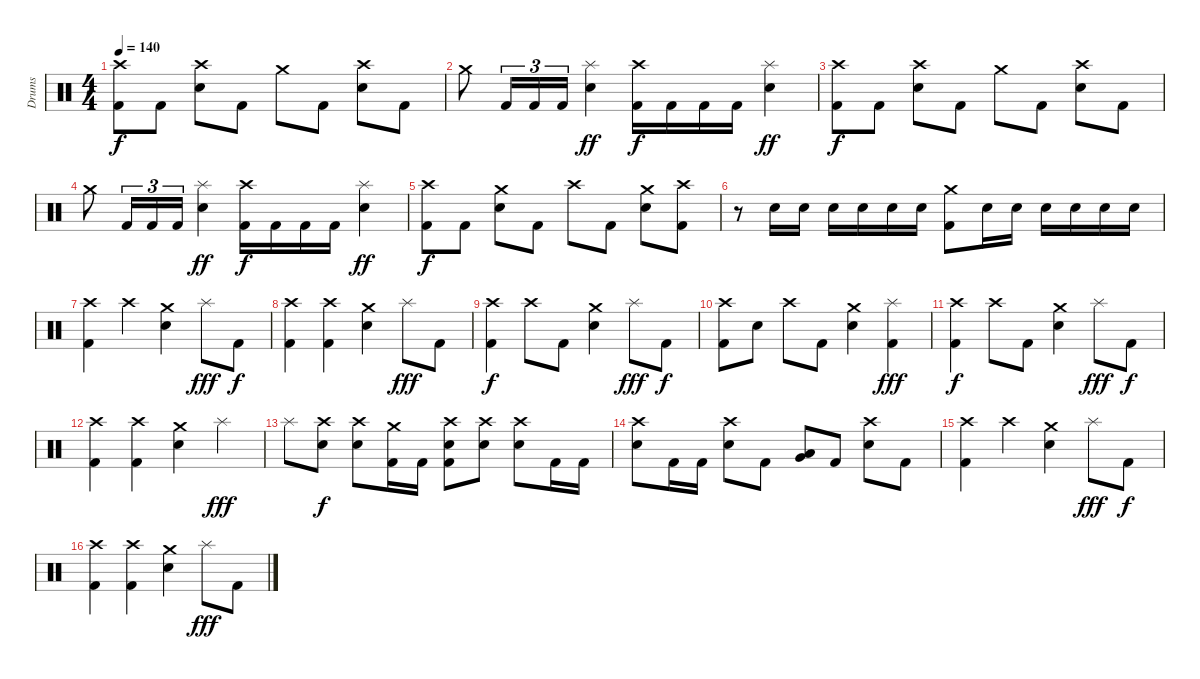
\track ("Drums" "Drums") {instrument percussion}
\staff {score}
\articulation defaults
\ts (4 4)
\tempo 140
\clef neutral
\ks c
("Crash high (hit)" "Kick (hit) 2").8{dy f} "Kick (hit) 2".8 ("Crash high (hit)" "Electric Snare (hit)").8 "Kick (hit) 2".8 "Crash medium (hit)".8 "Kick (hit) 2".8 ("Crash high (hit)" "Electric Snare (hit)").8 "Kick (hit) 2".8 |
"Crash medium (hit)".8 "Kick (hit) 2".16{tu (3 2)} "Kick (hit) 2".16{tu (3 2)} "Kick (hit) 2".16{tu (3 2)} ("Splash (hit)" "Electric Snare (hit)").4{dy ff} ("Crash high (hit)" "Kick (hit) 2").16{dy f} "Kick (hit) 2".16 "Kick (hit) 2".16 "Kick (hit) 2".16 ("Splash (hit)" "Electric Snare (hit)").4{dy ff} |
("Crash high (hit)" "Kick (hit) 2").8{dy f} "Kick (hit) 2".8 ("Crash high (hit)" "Electric Snare (hit)").8 "Kick (hit) 2".8 "Crash medium (hit)".8 "Kick (hit) 2".8 ("Crash high (hit)" "Electric Snare (hit)").8 "Kick (hit) 2".8 |
"Crash medium (hit)".8 "Kick (hit) 2".16{tu (3 2)} "Kick (hit) 2".16{tu (3 2)} "Kick (hit) 2".16{tu (3 2)} ("Splash (hit)" "Electric Snare (hit)").4{dy ff} ("Crash high (hit)" "Kick (hit) 2").16{dy f} "Kick (hit) 2".16 "Kick (hit) 2".16 "Kick (hit) 2".16 ("Splash (hit)" "Electric Snare (hit)").4{dy ff} |
("Crash high (hit)" "Kick (hit) 2").8{dy f} "Kick (hit) 2".8 ("Crash medium (hit)" "Electric Snare (hit)").8 "Kick (hit) 2".8 "Crash high (hit)".8 "Kick (hit) 2".8 ("Crash medium (hit)" "Electric Snare (hit)").8 ("Crash high (hit)" "Kick (hit) 2").8 |
r.8 "Electric Snare (hit)".16 "Electric Snare (hit)".16 "Electric Snare (hit)".16 "Electric Snare (hit)".16 "Electric Snare (hit)".16 "Electric Snare (hit)".16 ("Crash medium (hit)" "Kick (hit) 2").8 "Electric Snare (hit)".16 "Electric Snare (hit)".16 "Electric Snare (hit)".16 "Electric Snare (hit)".16 "Electric Snare (hit)".16 "Electric Snare (hit)".16 |
("Crash high (hit)" "Kick (hit) 2").4 "Crash high (hit)".4 ("Crash medium (hit)" "Electric Snare (hit)").4 "Splash (hit)".8{dy fff} "Kick (hit) 2".8{dy f} |
("Crash high (hit)" "Kick (hit) 2").4 ("Crash high (hit)" "Kick (hit) 2").4 ("Crash medium (hit)" "Electric Snare (hit)").4 "Splash (hit)".8{dy fff} "Kick (hit) 2".8 |
("Crash high (hit)" "Kick (hit) 2").4{dy f} "Crash high (hit)".8 "Kick (hit) 2".8 ("Crash medium (hit)" "Electric Snare (hit)").4 "Splash (hit)".8{dy fff} "Kick (hit) 2".8{dy f} |
("Crash high (hit)" "Kick (hit) 2").8 "Electric Snare (hit)".8 "Crash high (hit)".8 "Kick (hit) 2".8 ("Crash medium (hit)" "Electric Snare (hit)").4 ("Splash (hit)" "Kick (hit) 2").4{dy fff} |
("Crash high (hit)" "Kick (hit) 2").4{dy f} "Crash high (hit)".8 "Kick (hit) 2".8 ("Crash medium (hit)" "Electric Snare (hit)").4 "Splash (hit)".8{dy fff} "Kick (hit) 2".8{dy f} |
("Crash high (hit)" "Kick (hit) 2").4 ("Crash high (hit)" "Kick (hit) 2").4 ("Crash medium (hit)" "Electric Snare (hit)").4 "Splash (hit)".4{dy fff} |
"Splash (hit)".8 ("Crash high (hit)" "Electric Snare (hit)").8{dy f} ("Crash high (hit)" "Electric Snare (hit)").8 ("Crash medium (hit)" "Kick (hit) 2").16 "Kick (hit) 2".16 ("Crash high (hit)" "Electric Snare (hit)" "Kick (hit) 2").8 ("Crash high (hit)" "Electric Snare (hit)").8 ("Crash high (hit)" "Electric Snare (hit)").8 "Kick (hit) 2".16 "Kick (hit) 2".16 |
("Crash high (hit)" "Electric Snare (hit)").8 "Kick (hit) 2".16 "Kick (hit) 2".16 ("Crash high (hit)" "Electric Snare (hit)").8 "Kick (hit) 2".8 ("Low Floor Tom (hit)" "Very Low Tom (hit)").8 "Kick (hit) 2".8 ("Crash high (hit)" "Electric Snare (hit)").8 "Kick (hit) 2".8 |
("Crash high (hit)" "Kick (hit) 2").4 "Crash high (hit)".4 ("Crash medium (hit)" "Electric Snare (hit)").4 "Splash (hit)".8{dy fff} "Kick (hit) 2".8{dy f} |
("Crash high (hit)" "Kick (hit) 2").4 ("Crash high (hit)" "Kick (hit) 2").4 ("Crash medium (hit)" "Electric Snare (hit)").4 "Splash (hit)".8{dy fff} "Kick (hit) 2".8
